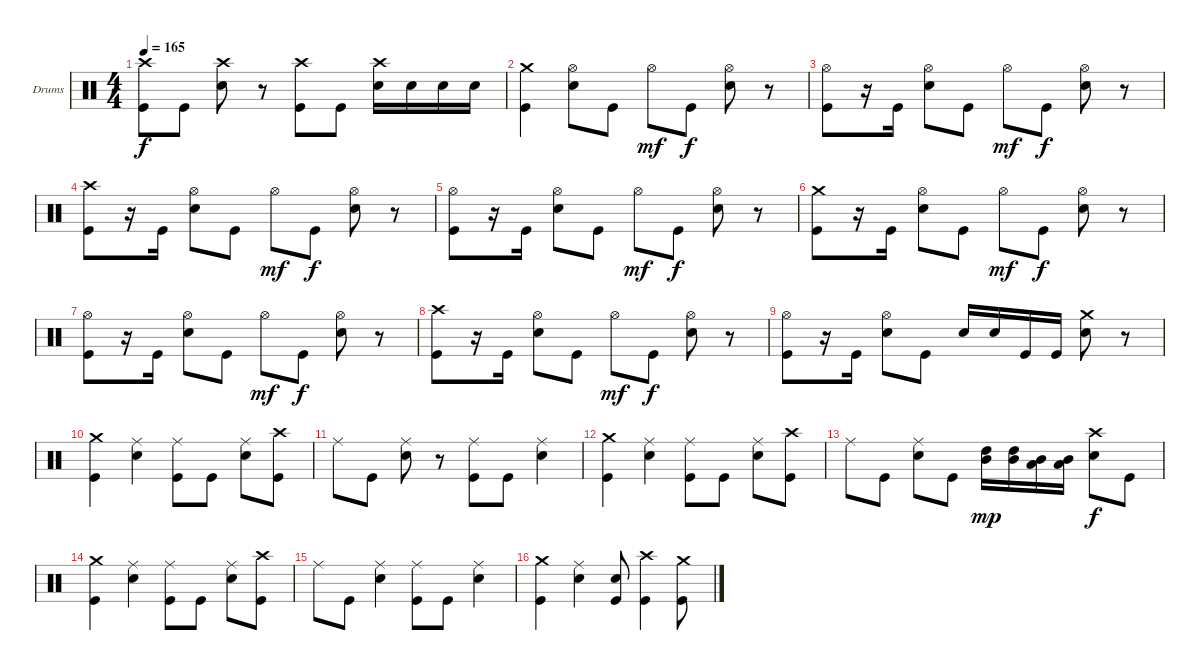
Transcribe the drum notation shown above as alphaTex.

\bracketExtendMode groupsimilarinstruments
\firstSystemTrackNameOrientation horizontal
\otherSystemsTrackNameOrientation horizontal
\track ("Drumkit Midi" "Drums") {instrument percussion}
\staff {score}
\articulation defaults
\ts (4 4)
\tempo 165
\clef neutral
\ks c
("Kick (hit)" "Crash high (hit)").8{dy f} "Kick (hit)".8 ("Snare (hit) 2" "Crash high (hit)").8 r.8 ("Kick (hit)" "Crash high (hit)").8 "Kick (hit)".8 ("Snare (hit) 2" "Crash high (hit)").16 "Snare (hit) 2".16 "Snare (hit) 2".16 "Snare (hit) 2".16 |
("Kick (hit)" "Crash medium (hit)").4 ("Snare (hit) 2" "Hi-Hat (open)").8 "Kick (hit)".8 "Hi-Hat (open)".8{dy mf} "Kick (hit)".8{dy f} ("Snare (hit) 2" "Hi-Hat (open)").8 r.8 |
("Kick (hit)" "Hi-Hat (open)").8 r.16 "Kick (hit)".16 ("Snare (hit) 2" "Hi-Hat (open)").8 "Kick (hit)".8 "Hi-Hat (open)".8{dy mf} "Kick (hit)".8{dy f} ("Snare (hit) 2" "Hi-Hat (open)").8 r.8 |
("Kick (hit)" "Crash high (hit)").8 r.16 "Kick (hit)".16 ("Snare (hit) 2" "Hi-Hat (open)").8 "Kick (hit)".8 "Hi-Hat (open)".8{dy mf} "Kick (hit)".8{dy f} ("Snare (hit) 2" "Hi-Hat (open)").8 r.8 |
("Kick (hit)" "Hi-Hat (open)").8 r.16 "Kick (hit)".16 ("Snare (hit) 2" "Hi-Hat (open)").8 "Kick (hit)".8 "Hi-Hat (open)".8{dy mf} "Kick (hit)".8{dy f} ("Snare (hit) 2" "Hi-Hat (open)").8 r.8 |
("Kick (hit)" "Crash medium (hit)").8 r.16 "Kick (hit)".16 ("Snare (hit) 2" "Hi-Hat (open)").8 "Kick (hit)".8 "Hi-Hat (open)".8{dy mf} "Kick (hit)".8{dy f} ("Snare (hit) 2" "Hi-Hat (open)").8 r.8 |
("Kick (hit)" "Hi-Hat (open)").8 r.16 "Kick (hit)".16 ("Snare (hit) 2" "Hi-Hat (open)").8 "Kick (hit)".8 "Hi-Hat (open)".8{dy mf} "Kick (hit)".8{dy f} ("Snare (hit) 2" "Hi-Hat (open)").8 r.8 |
("Kick (hit)" "Crash high (hit)").8 r.16 "Kick (hit)".16 ("Snare (hit) 2" "Hi-Hat (open)").8 "Kick (hit)".8 "Hi-Hat (open)".8{dy mf} "Kick (hit)".8{dy f} ("Snare (hit) 2" "Hi-Hat (open)").8 r.8 |
("Kick (hit)" "Hi-Hat (open)").8 r.16 "Kick (hit)".16 ("Snare (hit) 2" "Hi-Hat (open)").8 "Kick (hit)".8 "Snare (hit) 2".16 "Snare (hit) 2".16 "Kick (hit)".16 "Kick (hit)".16 ("Snare (hit) 2" "Crash medium (hit)").8 r.8 |
("Kick (hit)" "Crash medium (hit)").4 ("Snare (hit) 2" "Ride (middle)").4 ("Kick (hit)" "Ride (middle)").8 "Kick (hit)".8 ("Snare (hit) 2" "Ride (middle)").8 ("Kick (hit)" "Crash high (hit)").8 |
"Ride (middle)".8 "Kick (hit)".8 ("Snare (hit) 2" "Ride (middle)").8 r.8 ("Kick (hit)" "Ride (middle)").8 "Kick (hit)".8 ("Snare (hit) 2" "Ride (middle)").4 |
("Kick (hit)" "Crash medium (hit)").4 ("Snare (hit) 2" "Ride (middle)").4 ("Kick (hit)" "Ride (middle)").8 "Kick (hit)".8 ("Snare (hit) 2" "Ride (middle)").8 ("Kick (hit)" "Crash high (hit)").8 |
"Ride (middle)".8 "Kick (hit)".8 ("Snare (hit) 2" "Ride (middle)").8 "Kick (hit)".8 ("High Tom (hit)" "Mid Tom (hit)").16{dy mp} ("High Tom (hit)" "Mid Tom (hit)").16 ("Mid Tom (hit)" "Low Tom (hit)").16 ("Mid Tom (hit)" "Low Tom (hit)").16 ("Snare (hit) 2" "Crash high (hit)").8{dy f} "Kick (hit)".8 |
("Kick (hit)" "Crash medium (hit)").4 ("Snare (hit) 2" "Ride (middle)").4 ("Kick (hit)" "Ride (middle)").8 "Kick (hit)".8 ("Snare (hit) 2" "Ride (middle)").8 ("Kick (hit)" "Crash high (hit)").8 |
"Ride (middle)".8 "Kick (hit)".8 ("Snare (hit) 2" "Ride (middle)").4 ("Kick (hit)" "Ride (middle)").8 "Kick (hit)".8 ("Snare (hit) 2" "Ride (middle)").4 |
("Kick (hit)" "Crash medium (hit)").4 ("Snare (hit) 2" "Ride (middle)").4 ("Kick (hit)" "Snare (hit) 2").8 ("Kick (hit)" "Crash high (hit)").4 ("Kick (hit)" "Crash medium (hit)").8
